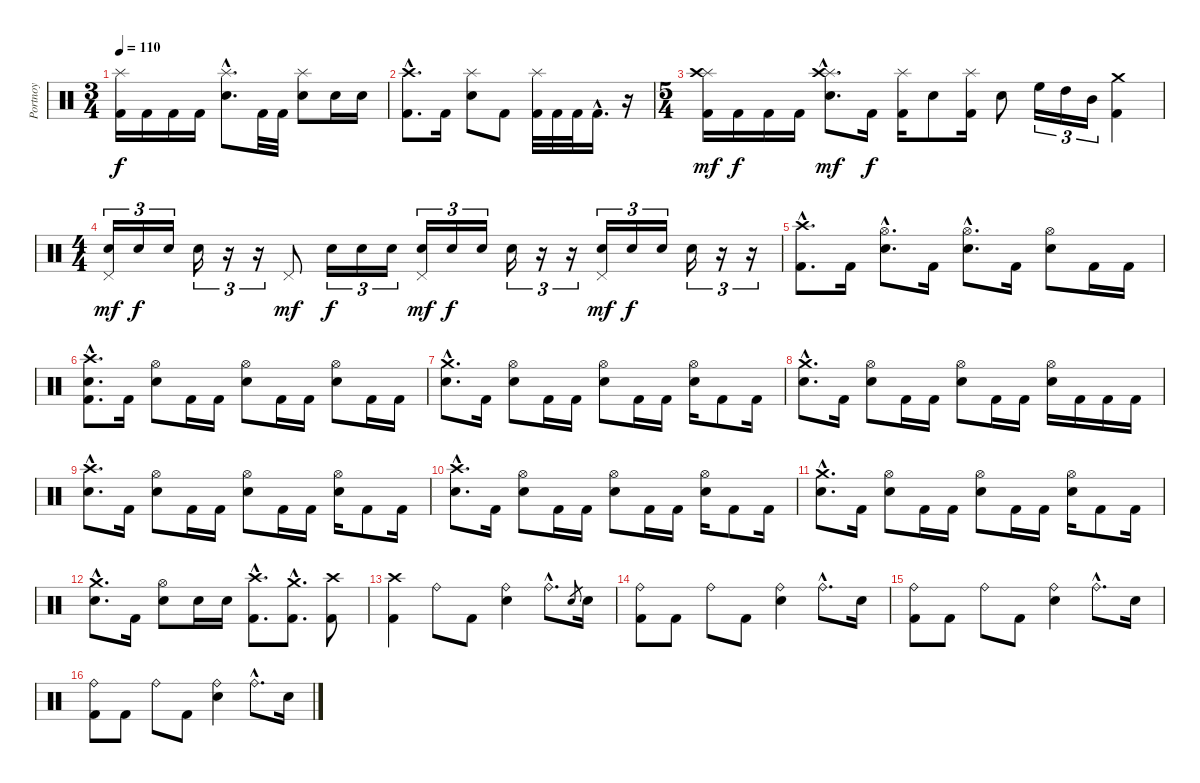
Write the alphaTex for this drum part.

\track ("Portnoy" "Portnoy") {instrument percussion}
\staff {score}
\articulation defaults
\ts (3 4)
\tempo 110
\clef neutral
\ks c
("Kick (hit) 2" "Splash (hit)").16{dy f} "Kick (hit) 2".16 "Kick (hit) 2".16 "Kick (hit) 2".16 ("Splash (hit)"{hac} "Snare (hit) 2"{hac}).8{d} "Kick (hit) 2".32 "Kick (hit) 2".32 ("Splash (hit)" "Snare (hit) 2").8 "Snare (hit) 2".16 "Snare (hit) 2".16 |
("Kick (hit) 2"{hac} "Crash high (hit)"{hac}).8{d} "Kick (hit) 2".16 ("Splash (hit)" "Snare (hit) 2").8 "Kick (hit) 2".8 ("Kick (hit) 2" "Splash (hit)").32 "Kick (hit) 2".32 "Kick (hit) 2".32 "Kick (hit) 2"{hac}.16{d} r.16 |
\ts (5 4)
("Kick (hit) 2" "Splash (hit)" "Crash high (hit)").16{dy mf} "Kick (hit) 2".16{dy f} "Kick (hit) 2".16 "Kick (hit) 2".16 ("Splash (hit)"{hac} "Crash high (hit)"{hac} "Snare (hit) 2"{hac}).8{d dy mf} "Kick (hit) 2".16{dy f} ("Kick (hit) 2" "Splash (hit)").16 "Snare (hit) 2".8 ("Kick (hit) 2" "Splash (hit)").16 "Snare (hit) 2".8 "High Floor Tom (hit)".16{tu (3 2)} "High Tom (hit)".16{tu (3 2)} "Mid Tom (hit)".16{tu (3 2)} ("Kick (hit) 2" "Crash medium (hit)").4 |
\ts (4 4)
("Pedal Hi-Hat (hit)" "Snare (hit) 2").16{tu (3 2) dy mf} "Snare (hit) 2".16{tu (3 2) dy f} "Snare (hit) 2".16{tu (3 2)} "Snare (hit) 2".16{tu (3 2)} r.16{tu (3 2)} r.16{tu (3 2)} "Pedal Hi-Hat (hit)".8{dy mf} "Snare (hit) 2".16{tu (3 2) dy f} "Snare (hit) 2".16{tu (3 2)} "Snare (hit) 2".16{tu (3 2)} ("Pedal Hi-Hat (hit)" "Snare (hit) 2").16{tu (3 2) dy mf} "Snare (hit) 2".16{tu (3 2) dy f} "Snare (hit) 2".16{tu (3 2)} "Snare (hit) 2".16{tu (3 2)} r.16{tu (3 2)} r.16{tu (3 2)} ("Pedal Hi-Hat (hit)" "Snare (hit) 2").16{tu (3 2) dy mf} "Snare (hit) 2".16{tu (3 2) dy f} "Snare (hit) 2".16{tu (3 2)} "Snare (hit) 2".16{tu (3 2)} r.16{tu (3 2)} r.16{tu (3 2)} |
("Kick (hit) 2"{hac} "Crash high (hit)"{hac}).8{d} "Kick (hit) 2".16 ("Hi-Hat (open)"{hac} "Snare (hit) 2"{hac}).8{d} "Kick (hit) 2".16 ("Hi-Hat (open)"{hac} "Snare (hit) 2"{hac}).8{d} "Kick (hit) 2".16 ("Hi-Hat (open)" "Snare (hit) 2").8 "Kick (hit) 2".16 "Kick (hit) 2".16 |
("Kick (hit) 2"{hac} "Crash high (hit)"{hac} "Snare (hit) 2"{hac}).8{d} "Kick (hit) 2".16 ("Hi-Hat (open)" "Snare (hit) 2").8 "Kick (hit) 2".16 "Kick (hit) 2".16 ("Hi-Hat (open)" "Snare (hit) 2").8 "Kick (hit) 2".16 "Kick (hit) 2".16 ("Hi-Hat (open)" "Snare (hit) 2").8 "Kick (hit) 2".16 "Kick (hit) 2".16 |
("Crash medium (hit)"{hac} "Snare (hit) 2"{hac}).8{d} "Kick (hit) 2".16 ("Hi-Hat (open)" "Snare (hit) 2").8 "Kick (hit) 2".16 "Kick (hit) 2".16 ("Hi-Hat (open)" "Snare (hit) 2").8 "Kick (hit) 2".16 "Kick (hit) 2".16 ("Hi-Hat (open)" "Snare (hit) 2").16 "Kick (hit) 2".8 "Kick (hit) 2".16 |
("Crash medium (hit)"{hac} "Snare (hit) 2"{hac}).8{d} "Kick (hit) 2".16 ("Hi-Hat (open)" "Snare (hit) 2").8 "Kick (hit) 2".16 "Kick (hit) 2".16 ("Hi-Hat (open)" "Snare (hit) 2").8 "Kick (hit) 2".16 "Kick (hit) 2".16 ("Hi-Hat (open)" "Snare (hit) 2").16 "Kick (hit) 2".16 "Kick (hit) 2".16 "Kick (hit) 2".16 |
("Crash high (hit)"{hac} "Snare (hit) 2"{hac}).8{d} "Kick (hit) 2".16 ("Hi-Hat (open)" "Snare (hit) 2").8 "Kick (hit) 2".16 "Kick (hit) 2".16 ("Hi-Hat (open)" "Snare (hit) 2").8 "Kick (hit) 2".16 "Kick (hit) 2".16 ("Hi-Hat (open)" "Snare (hit) 2").16 "Kick (hit) 2".8 "Kick (hit) 2".16 |
("Crash high (hit)"{hac} "Snare (hit) 2"{hac}).8{d} "Kick (hit) 2".16 ("Hi-Hat (open)" "Snare (hit) 2").8 "Kick (hit) 2".16 "Kick (hit) 2".16 ("Hi-Hat (open)" "Snare (hit) 2").8 "Kick (hit) 2".16 "Kick (hit) 2".16 ("Hi-Hat (open)" "Snare (hit) 2").16 "Kick (hit) 2".8 "Kick (hit) 2".16 |
("Crash medium (hit)"{hac} "Snare (hit) 2"{hac}).8{d} "Kick (hit) 2".16 ("Hi-Hat (open)" "Snare (hit) 2").8 "Kick (hit) 2".16 "Kick (hit) 2".16 ("Hi-Hat (open)" "Snare (hit) 2").8 "Kick (hit) 2".16 "Kick (hit) 2".16 ("Hi-Hat (open)" "Snare (hit) 2").16 "Kick (hit) 2".8 "Kick (hit) 2".16 |
("Crash medium (hit)"{hac} "Snare (hit) 2"{hac}).8{d} "Kick (hit) 2".16 ("Hi-Hat (open)" "Snare (hit) 2").8 "Snare (hit) 2".16 "Snare (hit) 2".16 ("Kick (hit) 2"{hac} "Crash high (hit)"{hac}).8{d} ("Kick (hit) 2"{hac} "Crash medium (hit)"{hac}).8{d} ("Kick (hit) 2" "Crash high (hit)").8 |
("Kick (hit) 2" "Crash high (hit)").4 "Ride (bell)".8 "Kick (hit) 2".8 ("Ride (bell)" "Snare (hit) 2").4 "Ride (bell)"{hac}.8{d} "Snare (hit) 2".8{gr} "Snare (hit) 2".16 |
("Kick (hit) 2" "Ride (bell)").8 "Kick (hit) 2".8 "Ride (bell)".8 "Kick (hit) 2".8 ("Ride (bell)" "Snare (hit) 2").4 "Ride (bell)"{hac}.8{d} "Snare (hit) 2".16 |
("Kick (hit) 2" "Ride (bell)").8 "Kick (hit) 2".8 "Ride (bell)".8 "Kick (hit) 2".8 ("Ride (bell)" "Snare (hit) 2").4 "Ride (bell)"{hac}.8{d} "Snare (hit) 2".16 |
("Kick (hit) 2" "Ride (bell)").8 "Kick (hit) 2".8 "Ride (bell)".8 "Kick (hit) 2".8 ("Ride (bell)" "Snare (hit) 2").4 "Ride (bell)"{hac}.8{d} "Snare (hit) 2".16
